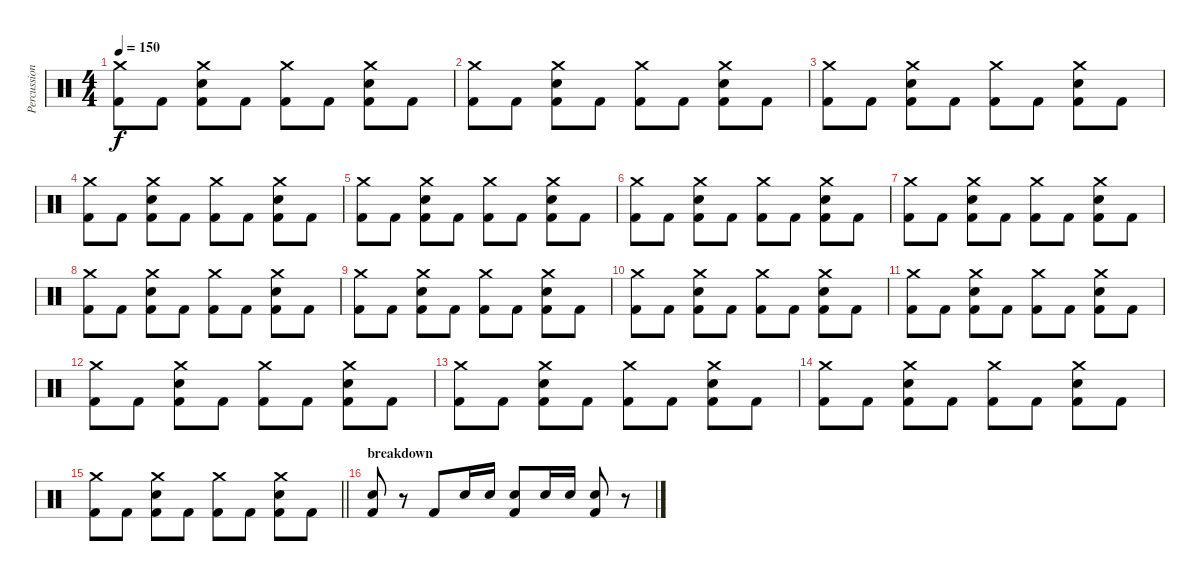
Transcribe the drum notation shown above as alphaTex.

\track ("Percussion" "Percussion") {instrument percussion}
\staff {score}
\articulation defaults
\ts (4 4)
\tempo 150
\clef neutral
\ks c
("Crash medium (hit)" "Kick (hit) 2").8{dy f} "Kick (hit) 2".8 ("Crash medium (hit)" "Snare (hit) 2" "Kick (hit) 2").8 "Kick (hit) 2".8 ("Crash medium (hit)" "Kick (hit) 2").8 "Kick (hit) 2".8 ("Crash medium (hit)" "Snare (hit) 2" "Kick (hit) 2").8 "Kick (hit) 2".8 |
("Crash medium (hit)" "Kick (hit) 2").8 "Kick (hit) 2".8 ("Crash medium (hit)" "Snare (hit) 2" "Kick (hit) 2").8 "Kick (hit) 2".8 ("Crash medium (hit)" "Kick (hit) 2").8 "Kick (hit) 2".8 ("Crash medium (hit)" "Snare (hit) 2" "Kick (hit) 2").8 "Kick (hit) 2".8 |
("Crash medium (hit)" "Kick (hit) 2").8 "Kick (hit) 2".8 ("Crash medium (hit)" "Snare (hit) 2" "Kick (hit) 2").8 "Kick (hit) 2".8 ("Crash medium (hit)" "Kick (hit) 2").8 "Kick (hit) 2".8 ("Crash medium (hit)" "Snare (hit) 2" "Kick (hit) 2").8 "Kick (hit) 2".8 |
("Crash medium (hit)" "Kick (hit) 2").8 "Kick (hit) 2".8 ("Crash medium (hit)" "Snare (hit) 2" "Kick (hit) 2").8 "Kick (hit) 2".8 ("Crash medium (hit)" "Kick (hit) 2").8 "Kick (hit) 2".8 ("Crash medium (hit)" "Snare (hit) 2" "Kick (hit) 2").8 "Kick (hit) 2".8 |
("Crash medium (hit)" "Kick (hit) 2").8 "Kick (hit) 2".8 ("Crash medium (hit)" "Snare (hit) 2" "Kick (hit) 2").8 "Kick (hit) 2".8 ("Crash medium (hit)" "Kick (hit) 2").8 "Kick (hit) 2".8 ("Crash medium (hit)" "Snare (hit) 2" "Kick (hit) 2").8 "Kick (hit) 2".8 |
("Crash medium (hit)" "Kick (hit) 2").8 "Kick (hit) 2".8 ("Crash medium (hit)" "Snare (hit) 2" "Kick (hit) 2").8 "Kick (hit) 2".8 ("Crash medium (hit)" "Kick (hit) 2").8 "Kick (hit) 2".8 ("Crash medium (hit)" "Snare (hit) 2" "Kick (hit) 2").8 "Kick (hit) 2".8 |
("Crash medium (hit)" "Kick (hit) 2").8 "Kick (hit) 2".8 ("Crash medium (hit)" "Snare (hit) 2" "Kick (hit) 2").8 "Kick (hit) 2".8 ("Crash medium (hit)" "Kick (hit) 2").8 "Kick (hit) 2".8 ("Crash medium (hit)" "Snare (hit) 2" "Kick (hit) 2").8 "Kick (hit) 2".8 |
("Crash medium (hit)" "Kick (hit) 2").8 "Kick (hit) 2".8 ("Crash medium (hit)" "Snare (hit) 2" "Kick (hit) 2").8 "Kick (hit) 2".8 ("Crash medium (hit)" "Kick (hit) 2").8 "Kick (hit) 2".8 ("Crash medium (hit)" "Snare (hit) 2" "Kick (hit) 2").8 "Kick (hit) 2".8 |
("Crash medium (hit)" "Kick (hit) 2").8 "Kick (hit) 2".8 ("Crash medium (hit)" "Snare (hit) 2" "Kick (hit) 2").8 "Kick (hit) 2".8 ("Crash medium (hit)" "Kick (hit) 2").8 "Kick (hit) 2".8 ("Crash medium (hit)" "Snare (hit) 2" "Kick (hit) 2").8 "Kick (hit) 2".8 |
("Crash medium (hit)" "Kick (hit) 2").8 "Kick (hit) 2".8 ("Crash medium (hit)" "Snare (hit) 2" "Kick (hit) 2").8 "Kick (hit) 2".8 ("Crash medium (hit)" "Kick (hit) 2").8 "Kick (hit) 2".8 ("Crash medium (hit)" "Snare (hit) 2" "Kick (hit) 2").8 "Kick (hit) 2".8 |
("Crash medium (hit)" "Kick (hit) 2").8 "Kick (hit) 2".8 ("Crash medium (hit)" "Snare (hit) 2" "Kick (hit) 2").8 "Kick (hit) 2".8 ("Crash medium (hit)" "Kick (hit) 2").8 "Kick (hit) 2".8 ("Crash medium (hit)" "Snare (hit) 2" "Kick (hit) 2").8 "Kick (hit) 2".8 |
("Crash medium (hit)" "Kick (hit) 2").8 "Kick (hit) 2".8 ("Crash medium (hit)" "Snare (hit) 2" "Kick (hit) 2").8 "Kick (hit) 2".8 ("Crash medium (hit)" "Kick (hit) 2").8 "Kick (hit) 2".8 ("Crash medium (hit)" "Snare (hit) 2" "Kick (hit) 2").8 "Kick (hit) 2".8 |
("Crash medium (hit)" "Kick (hit) 2").8 "Kick (hit) 2".8 ("Crash medium (hit)" "Snare (hit) 2" "Kick (hit) 2").8 "Kick (hit) 2".8 ("Crash medium (hit)" "Kick (hit) 2").8 "Kick (hit) 2".8 ("Crash medium (hit)" "Snare (hit) 2" "Kick (hit) 2").8 "Kick (hit) 2".8 |
("Crash medium (hit)" "Kick (hit) 2").8 "Kick (hit) 2".8 ("Crash medium (hit)" "Snare (hit) 2" "Kick (hit) 2").8 "Kick (hit) 2".8 ("Crash medium (hit)" "Kick (hit) 2").8 "Kick (hit) 2".8 ("Crash medium (hit)" "Snare (hit) 2" "Kick (hit) 2").8 "Kick (hit) 2".8 |
\barLineRight lightlight
("Crash medium (hit)" "Kick (hit) 2").8 "Kick (hit) 2".8 ("Crash medium (hit)" "Snare (hit) 2" "Kick (hit) 2").8 "Kick (hit) 2".8 ("Crash medium (hit)" "Kick (hit) 2").8 "Kick (hit) 2".8 ("Crash medium (hit)" "Snare (hit) 2" "Kick (hit) 2").8 "Kick (hit) 2".8 |
\section ("" "breakdown")
("Snare (hit) 2" "Kick (hit) 2").8 r.8 "Kick (hit) 2".8 "Snare (hit) 2".16 "Snare (hit) 2".16 ("Snare (hit) 2" "Kick (hit) 2").8 "Snare (hit) 2".16 "Snare (hit) 2".16 ("Snare (hit) 2" "Kick (hit) 2").8 r.8
